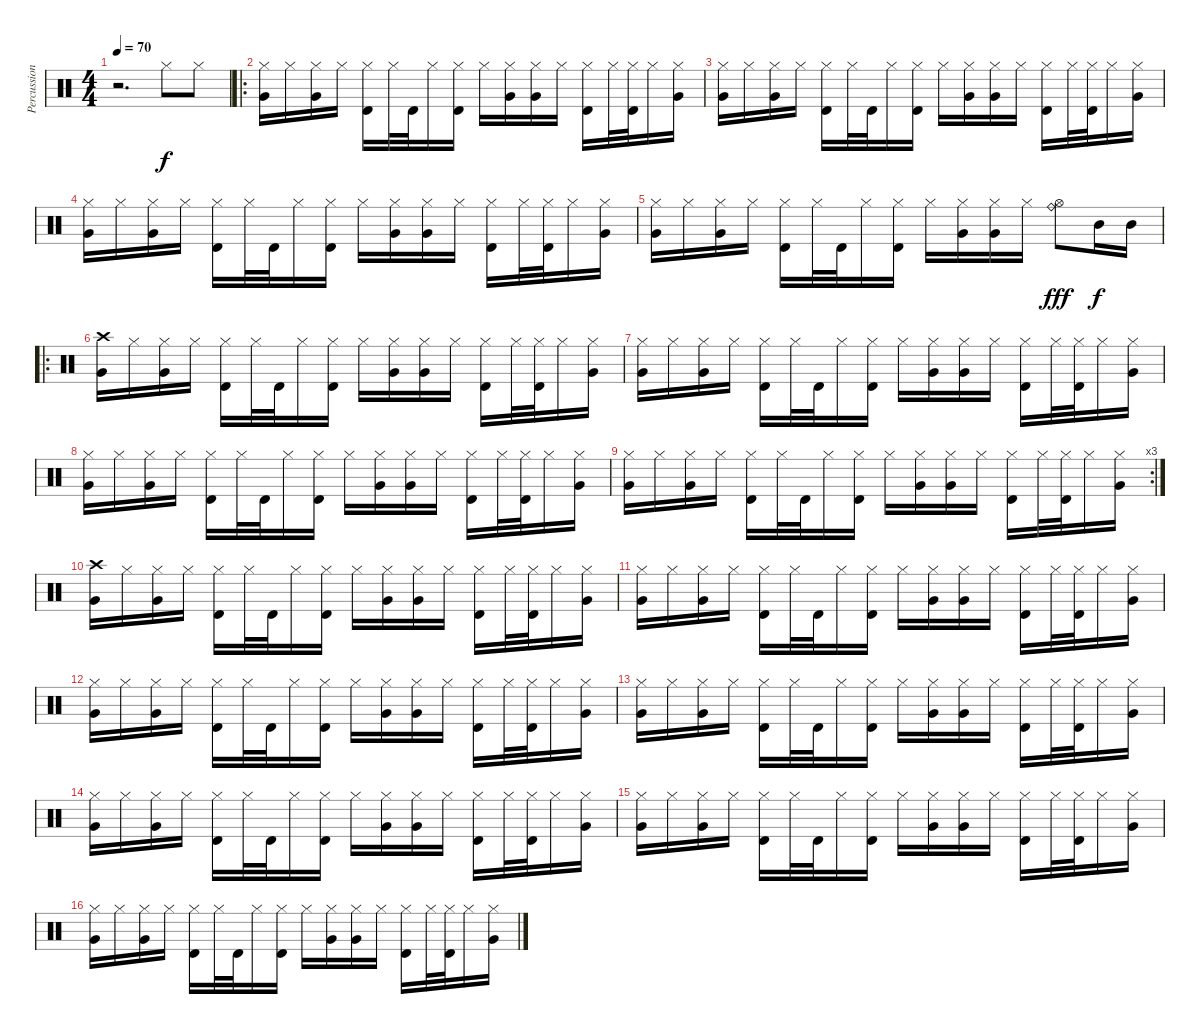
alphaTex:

\track ("Percussioni" "Percussion") {instrument percussion}
\staff {score}
\articulation defaults
\ts (4 4)
\tempo 70
\clef neutral
\ks c
r.2{d dy f} "Hi-Hat (closed)".8 "Hi-Hat (closed)".8 |
\ro
("Hi-Hat (closed)" "Very Low Tom (hit)").16 "Hi-Hat (closed)".16 ("Hi-Hat (closed)" "Very Low Tom (hit)").16 "Hi-Hat (closed)".16 ("Hi-Hat (closed)" "Timbale high (hit)").16 "Hi-Hat (closed)".32 "Timbale high (hit)".32 "Hi-Hat (closed)".16 ("Hi-Hat (closed)" "Timbale high (hit)").16 "Hi-Hat (closed)".16 ("Hi-Hat (closed)" "Very Low Tom (hit)").16 ("Hi-Hat (closed)" "Very Low Tom (hit)").16 "Hi-Hat (closed)".16 ("Hi-Hat (closed)" "Timbale high (hit)").16 "Hi-Hat (closed)".32 ("Hi-Hat (closed)" "Timbale high (hit)").32 "Hi-Hat (closed)".16 ("Hi-Hat (closed)" "Very Low Tom (hit)").16 |
("Hi-Hat (closed)" "Very Low Tom (hit)").16 "Hi-Hat (closed)".16 ("Hi-Hat (closed)" "Very Low Tom (hit)").16 "Hi-Hat (closed)".16 ("Hi-Hat (closed)" "Timbale high (hit)").16 "Hi-Hat (closed)".32 "Timbale high (hit)".32 "Hi-Hat (closed)".16 ("Hi-Hat (closed)" "Timbale high (hit)").16 "Hi-Hat (closed)".16 ("Hi-Hat (closed)" "Very Low Tom (hit)").16 ("Hi-Hat (closed)" "Very Low Tom (hit)").16 "Hi-Hat (closed)".16 ("Hi-Hat (closed)" "Timbale high (hit)").16 "Hi-Hat (closed)".32 ("Hi-Hat (closed)" "Timbale high (hit)").32 "Hi-Hat (closed)".16 ("Hi-Hat (closed)" "Very Low Tom (hit)").16 |
("Hi-Hat (closed)" "Very Low Tom (hit)").16 "Hi-Hat (closed)".16 ("Hi-Hat (closed)" "Very Low Tom (hit)").16 "Hi-Hat (closed)".16 ("Hi-Hat (closed)" "Timbale high (hit)").16 "Hi-Hat (closed)".32 "Timbale high (hit)".32 "Hi-Hat (closed)".16 ("Hi-Hat (closed)" "Timbale high (hit)").16 "Hi-Hat (closed)".16 ("Hi-Hat (closed)" "Very Low Tom (hit)").16 ("Hi-Hat (closed)" "Very Low Tom (hit)").16 "Hi-Hat (closed)".16 ("Hi-Hat (closed)" "Timbale high (hit)").16 "Hi-Hat (closed)".32 ("Hi-Hat (closed)" "Timbale high (hit)").32 "Hi-Hat (closed)".16 ("Hi-Hat (closed)" "Very Low Tom (hit)").16 |
("Hi-Hat (closed)" "Very Low Tom (hit)").16 "Hi-Hat (closed)".16 ("Hi-Hat (closed)" "Very Low Tom (hit)").16 "Hi-Hat (closed)".16 ("Hi-Hat (closed)" "Timbale high (hit)").16 "Hi-Hat (closed)".32 "Timbale high (hit)".32 "Hi-Hat (closed)".16 ("Hi-Hat (closed)" "Timbale high (hit)").16 "Hi-Hat (closed)".16 ("Hi-Hat (closed)" "Very Low Tom (hit)").16 ("Hi-Hat (closed)" "Very Low Tom (hit)").16 "Hi-Hat (closed)".16 ("Ride (bell)" "Hi-Hat (open)").8{dy fff} "Mid Tom (hit)".16{dy f} "Mid Tom (hit)".16 |
\ro
("Crash high (hit)" "Very Low Tom (hit)").16 "Hi-Hat (closed)".16 ("Hi-Hat (closed)" "Very Low Tom (hit)").16 "Hi-Hat (closed)".16 ("Hi-Hat (closed)" "Timbale high (hit)").16 "Hi-Hat (closed)".32 "Timbale high (hit)".32 "Hi-Hat (closed)".16 ("Hi-Hat (closed)" "Timbale high (hit)").16 "Hi-Hat (closed)".16 ("Hi-Hat (closed)" "Very Low Tom (hit)").16 ("Hi-Hat (closed)" "Very Low Tom (hit)").16 "Hi-Hat (closed)".16 ("Hi-Hat (closed)" "Timbale high (hit)").16 "Hi-Hat (closed)".32 ("Hi-Hat (closed)" "Timbale high (hit)").32 "Hi-Hat (closed)".16 ("Hi-Hat (closed)" "Very Low Tom (hit)").16 |
("Hi-Hat (closed)" "Very Low Tom (hit)").16 "Hi-Hat (closed)".16 ("Hi-Hat (closed)" "Very Low Tom (hit)").16 "Hi-Hat (closed)".16 ("Hi-Hat (closed)" "Timbale high (hit)").16 "Hi-Hat (closed)".32 "Timbale high (hit)".32 "Hi-Hat (closed)".16 ("Hi-Hat (closed)" "Timbale high (hit)").16 "Hi-Hat (closed)".16 ("Hi-Hat (closed)" "Very Low Tom (hit)").16 ("Hi-Hat (closed)" "Very Low Tom (hit)").16 "Hi-Hat (closed)".16 ("Hi-Hat (closed)" "Timbale high (hit)").16 "Hi-Hat (closed)".32 ("Hi-Hat (closed)" "Timbale high (hit)").32 "Hi-Hat (closed)".16 ("Hi-Hat (closed)" "Very Low Tom (hit)").16 |
("Hi-Hat (closed)" "Very Low Tom (hit)").16 "Hi-Hat (closed)".16 ("Hi-Hat (closed)" "Very Low Tom (hit)").16 "Hi-Hat (closed)".16 ("Hi-Hat (closed)" "Timbale high (hit)").16 "Hi-Hat (closed)".32 "Timbale high (hit)".32 "Hi-Hat (closed)".16 ("Hi-Hat (closed)" "Timbale high (hit)").16 "Hi-Hat (closed)".16 ("Hi-Hat (closed)" "Very Low Tom (hit)").16 ("Hi-Hat (closed)" "Very Low Tom (hit)").16 "Hi-Hat (closed)".16 ("Hi-Hat (closed)" "Timbale high (hit)").16 "Hi-Hat (closed)".32 ("Hi-Hat (closed)" "Timbale high (hit)").32 "Hi-Hat (closed)".16 ("Hi-Hat (closed)" "Very Low Tom (hit)").16 |
\rc 3
("Hi-Hat (closed)" "Very Low Tom (hit)").16 "Hi-Hat (closed)".16 ("Hi-Hat (closed)" "Very Low Tom (hit)").16 "Hi-Hat (closed)".16 ("Hi-Hat (closed)" "Timbale high (hit)").16 "Hi-Hat (closed)".32 "Timbale high (hit)".32 "Hi-Hat (closed)".16 ("Hi-Hat (closed)" "Timbale high (hit)").16 "Hi-Hat (closed)".16 ("Hi-Hat (closed)" "Very Low Tom (hit)").16 ("Hi-Hat (closed)" "Very Low Tom (hit)").16 "Hi-Hat (closed)".16 ("Hi-Hat (closed)" "Timbale high (hit)").16 "Hi-Hat (closed)".32 ("Hi-Hat (closed)" "Timbale high (hit)").32 "Hi-Hat (closed)".16 ("Hi-Hat (closed)" "Very Low Tom (hit)").16 |
("Crash high (hit)" "Very Low Tom (hit)").16 "Hi-Hat (closed)".16 ("Hi-Hat (closed)" "Very Low Tom (hit)").16 "Hi-Hat (closed)".16 ("Hi-Hat (closed)" "Timbale high (hit)").16 "Hi-Hat (closed)".32 "Timbale high (hit)".32 "Hi-Hat (closed)".16 ("Hi-Hat (closed)" "Timbale high (hit)").16 "Hi-Hat (closed)".16 ("Hi-Hat (closed)" "Very Low Tom (hit)").16 ("Hi-Hat (closed)" "Very Low Tom (hit)").16 "Hi-Hat (closed)".16 ("Hi-Hat (closed)" "Timbale high (hit)").16 "Hi-Hat (closed)".32 ("Hi-Hat (closed)" "Timbale high (hit)").32 "Hi-Hat (closed)".16 ("Hi-Hat (closed)" "Very Low Tom (hit)").16 |
("Hi-Hat (closed)" "Very Low Tom (hit)").16 "Hi-Hat (closed)".16 ("Hi-Hat (closed)" "Very Low Tom (hit)").16 "Hi-Hat (closed)".16 ("Hi-Hat (closed)" "Timbale high (hit)").16 "Hi-Hat (closed)".32 "Timbale high (hit)".32 "Hi-Hat (closed)".16 ("Hi-Hat (closed)" "Timbale high (hit)").16 "Hi-Hat (closed)".16 ("Hi-Hat (closed)" "Very Low Tom (hit)").16 ("Hi-Hat (closed)" "Very Low Tom (hit)").16 "Hi-Hat (closed)".16 ("Hi-Hat (closed)" "Timbale high (hit)").16 "Hi-Hat (closed)".32 ("Hi-Hat (closed)" "Timbale high (hit)").32 "Hi-Hat (closed)".16 ("Hi-Hat (closed)" "Very Low Tom (hit)").16 |
("Hi-Hat (closed)" "Very Low Tom (hit)").16 "Hi-Hat (closed)".16 ("Hi-Hat (closed)" "Very Low Tom (hit)").16 "Hi-Hat (closed)".16 ("Hi-Hat (closed)" "Timbale high (hit)").16 "Hi-Hat (closed)".32 "Timbale high (hit)".32 "Hi-Hat (closed)".16 ("Hi-Hat (closed)" "Timbale high (hit)").16 "Hi-Hat (closed)".16 ("Hi-Hat (closed)" "Very Low Tom (hit)").16 ("Hi-Hat (closed)" "Very Low Tom (hit)").16 "Hi-Hat (closed)".16 ("Hi-Hat (closed)" "Timbale high (hit)").16 "Hi-Hat (closed)".32 ("Hi-Hat (closed)" "Timbale high (hit)").32 "Hi-Hat (closed)".16 ("Hi-Hat (closed)" "Very Low Tom (hit)").16 |
("Hi-Hat (closed)" "Very Low Tom (hit)").16 "Hi-Hat (closed)".16 ("Hi-Hat (closed)" "Very Low Tom (hit)").16 "Hi-Hat (closed)".16 ("Hi-Hat (closed)" "Timbale high (hit)").16 "Hi-Hat (closed)".32 "Timbale high (hit)".32 "Hi-Hat (closed)".16 ("Hi-Hat (closed)" "Timbale high (hit)").16 "Hi-Hat (closed)".16 ("Hi-Hat (closed)" "Very Low Tom (hit)").16 ("Hi-Hat (closed)" "Very Low Tom (hit)").16 "Hi-Hat (closed)".16 ("Hi-Hat (closed)" "Timbale high (hit)").16 "Hi-Hat (closed)".32 ("Hi-Hat (closed)" "Timbale high (hit)").32 "Hi-Hat (closed)".16 ("Hi-Hat (closed)" "Very Low Tom (hit)").16 |
("Hi-Hat (closed)" "Very Low Tom (hit)").16 "Hi-Hat (closed)".16 ("Hi-Hat (closed)" "Very Low Tom (hit)").16 "Hi-Hat (closed)".16 ("Hi-Hat (closed)" "Timbale high (hit)").16 "Hi-Hat (closed)".32 "Timbale high (hit)".32 "Hi-Hat (closed)".16 ("Hi-Hat (closed)" "Timbale high (hit)").16 "Hi-Hat (closed)".16 ("Hi-Hat (closed)" "Very Low Tom (hit)").16 ("Hi-Hat (closed)" "Very Low Tom (hit)").16 "Hi-Hat (closed)".16 ("Hi-Hat (closed)" "Timbale high (hit)").16 "Hi-Hat (closed)".32 ("Hi-Hat (closed)" "Timbale high (hit)").32 "Hi-Hat (closed)".16 ("Hi-Hat (closed)" "Very Low Tom (hit)").16 |
("Hi-Hat (closed)" "Very Low Tom (hit)").16 "Hi-Hat (closed)".16 ("Hi-Hat (closed)" "Very Low Tom (hit)").16 "Hi-Hat (closed)".16 ("Hi-Hat (closed)" "Timbale high (hit)").16 "Hi-Hat (closed)".32 "Timbale high (hit)".32 "Hi-Hat (closed)".16 ("Hi-Hat (closed)" "Timbale high (hit)").16 "Hi-Hat (closed)".16 ("Hi-Hat (closed)" "Very Low Tom (hit)").16 ("Hi-Hat (closed)" "Very Low Tom (hit)").16 "Hi-Hat (closed)".16 ("Hi-Hat (closed)" "Timbale high (hit)").16 "Hi-Hat (closed)".32 ("Hi-Hat (closed)" "Timbale high (hit)").32 "Hi-Hat (closed)".16 ("Hi-Hat (closed)" "Very Low Tom (hit)").16 |
("Hi-Hat (closed)" "Very Low Tom (hit)").16 "Hi-Hat (closed)".16 ("Hi-Hat (closed)" "Very Low Tom (hit)").16 "Hi-Hat (closed)".16 ("Hi-Hat (closed)" "Timbale high (hit)").16 "Hi-Hat (closed)".32 "Timbale high (hit)".32 "Hi-Hat (closed)".16 ("Hi-Hat (closed)" "Timbale high (hit)").16 "Hi-Hat (closed)".16 ("Hi-Hat (closed)" "Very Low Tom (hit)").16 ("Hi-Hat (closed)" "Very Low Tom (hit)").16 "Hi-Hat (closed)".16 ("Hi-Hat (closed)" "Timbale high (hit)").16 "Hi-Hat (closed)".32 ("Hi-Hat (closed)" "Timbale high (hit)").32 "Hi-Hat (closed)".16 ("Hi-Hat (closed)" "Very Low Tom (hit)").16
